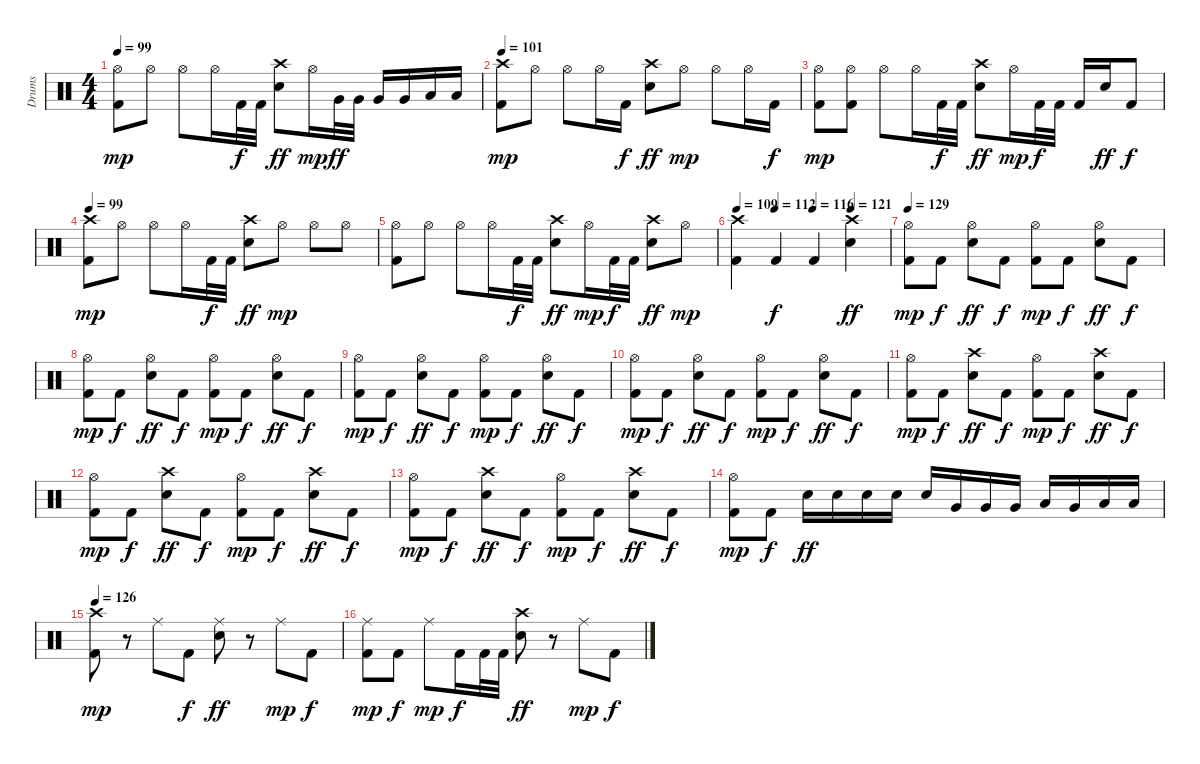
\track ("Drums" "Drums") {instrument percussion}
\staff {score}
\articulation defaults
\ts (4 4)
\tempo 99
\clef neutral
\ks c
("Hi-Hat (open)" "Kick (hit) 2").8{dy mp} "Hi-Hat (open)".8 "Hi-Hat (open)".8 "Hi-Hat (open)".16 "Kick (hit) 2".32{dy f} "Kick (hit) 2".32 ("Crash high (hit)" "Electric Snare (hit)").8{dy ff} "Hi-Hat (open)".16{dy mp} "Very Low Tom (hit)".32{dy ff} "Very Low Tom (hit)".32 "Very Low Tom (hit)".16 "Very Low Tom (hit)".16 "Low Floor Tom (hit)".16 "Low Floor Tom (hit)".16 |
\tempo 101
("Crash high (hit)" "Kick (hit) 2").8{dy mp} "Hi-Hat (open)".8 "Hi-Hat (open)".8 "Hi-Hat (open)".16 "Kick (hit) 2".16{dy f} ("Crash high (hit)" "Electric Snare (hit)").8{dy ff} "Hi-Hat (open)".8{dy mp} "Hi-Hat (open)".8 "Hi-Hat (open)".16 "Kick (hit) 2".16{dy f} |
("Hi-Hat (open)" "Kick (hit) 2").8{dy mp} ("Hi-Hat (open)" "Kick (hit) 2").8 "Hi-Hat (open)".8 "Hi-Hat (open)".16 "Kick (hit) 2".32{dy f} "Kick (hit) 2".32 ("Crash high (hit)" "Electric Snare (hit)").8{dy ff} "Hi-Hat (open)".16{dy mp} "Kick (hit) 2".32{dy f} "Kick (hit) 2".32 "Kick (hit) 2".16 "Electric Snare (hit)".16{dy ff} "Kick (hit) 2".8{dy f} |
\tempo 99
("Crash high (hit)" "Kick (hit) 2").8{dy mp} "Hi-Hat (open)".8 "Hi-Hat (open)".8 "Hi-Hat (open)".16 "Kick (hit) 2".32{dy f} "Kick (hit) 2".32 ("Crash high (hit)" "Electric Snare (hit)").8{dy ff} "Hi-Hat (open)".8{dy mp} "Hi-Hat (open)".8 "Hi-Hat (open)".8 |
("Hi-Hat (open)" "Kick (hit) 2").8 "Hi-Hat (open)".8 "Hi-Hat (open)".8 "Hi-Hat (open)".16 "Kick (hit) 2".32{dy f} "Kick (hit) 2".32 ("Crash high (hit)" "Electric Snare (hit)").8{dy ff} "Hi-Hat (open)".16{dy mp} "Kick (hit) 2".32{dy f} "Kick (hit) 2".32 ("Crash high (hit)" "Electric Snare (hit)").8{dy ff} "Hi-Hat (open)".8{dy mp} |
\tempo 109
\tempo (112 0.25)
\tempo (116 0.5)
\tempo (121 0.75)
("Crash high (hit)" "Kick (hit) 2").4 "Kick (hit) 2".4{dy f} "Kick (hit) 2".4 ("Crash high (hit)" "Electric Snare (hit)").4{dy ff} |
\tempo 129
("Hi-Hat (open)" "Kick (hit) 2").8{dy mp} "Kick (hit) 2".8{dy f} ("Hi-Hat (open)" "Electric Snare (hit)").8{dy ff} "Kick (hit) 2".8{dy f} ("Hi-Hat (open)" "Kick (hit) 2").8{dy mp} "Kick (hit) 2".8{dy f} ("Hi-Hat (open)" "Electric Snare (hit)").8{dy ff} "Kick (hit) 2".8{dy f} |
("Hi-Hat (open)" "Kick (hit) 2").8{dy mp} "Kick (hit) 2".8{dy f} ("Hi-Hat (open)" "Electric Snare (hit)").8{dy ff} "Kick (hit) 2".8{dy f} ("Hi-Hat (open)" "Kick (hit) 2").8{dy mp} "Kick (hit) 2".8{dy f} ("Hi-Hat (open)" "Electric Snare (hit)").8{dy ff} "Kick (hit) 2".8{dy f} |
("Hi-Hat (open)" "Kick (hit) 2").8{dy mp} "Kick (hit) 2".8{dy f} ("Hi-Hat (open)" "Electric Snare (hit)").8{dy ff} "Kick (hit) 2".8{dy f} ("Hi-Hat (open)" "Kick (hit) 2").8{dy mp} "Kick (hit) 2".8{dy f} ("Hi-Hat (open)" "Electric Snare (hit)").8{dy ff} "Kick (hit) 2".8{dy f} |
("Hi-Hat (open)" "Kick (hit) 2").8{dy mp} "Kick (hit) 2".8{dy f} ("Hi-Hat (open)" "Electric Snare (hit)").8{dy ff} "Kick (hit) 2".8{dy f} ("Hi-Hat (open)" "Kick (hit) 2").8{dy mp} "Kick (hit) 2".8{dy f} ("Hi-Hat (open)" "Electric Snare (hit)").8{dy ff} "Kick (hit) 2".8{dy f} |
("Hi-Hat (open)" "Kick (hit) 2").8{dy mp} "Kick (hit) 2".8{dy f} ("Crash high (hit)" "Electric Snare (hit)").8{dy ff} "Kick (hit) 2".8{dy f} ("Hi-Hat (open)" "Kick (hit) 2").8{dy mp} "Kick (hit) 2".8{dy f} ("Crash high (hit)" "Electric Snare (hit)").8{dy ff} "Kick (hit) 2".8{dy f} |
("Hi-Hat (open)" "Kick (hit) 2").8{dy mp} "Kick (hit) 2".8{dy f} ("Crash high (hit)" "Electric Snare (hit)").8{dy ff} "Kick (hit) 2".8{dy f} ("Hi-Hat (open)" "Kick (hit) 2").8{dy mp} "Kick (hit) 2".8{dy f} ("Crash high (hit)" "Electric Snare (hit)").8{dy ff} "Kick (hit) 2".8{dy f} |
("Hi-Hat (open)" "Kick (hit) 2").8{dy mp} "Kick (hit) 2".8{dy f} ("Crash high (hit)" "Electric Snare (hit)").8{dy ff} "Kick (hit) 2".8{dy f} ("Hi-Hat (open)" "Kick (hit) 2").8{dy mp} "Kick (hit) 2".8{dy f} ("Crash high (hit)" "Electric Snare (hit)").8{dy ff} "Kick (hit) 2".8{dy f} |
("Hi-Hat (open)" "Kick (hit) 2").8{dy mp} "Kick (hit) 2".8{dy f} "Electric Snare (hit)".16{dy ff} "Electric Snare (hit)".16 "Electric Snare (hit)".16 "Electric Snare (hit)".16 "Electric Snare (hit)".16 "Very Low Tom (hit)".16 "Very Low Tom (hit)".16 "Very Low Tom (hit)".16 "Low Floor Tom (hit)".16 "Very Low Tom (hit)".16 "Low Floor Tom (hit)".16 "Low Floor Tom (hit)".16 |
\tempo 126
("Crash high (hit)" "Kick (hit) 2").8{dy mp} r.8 "Ride (middle)".8 "Kick (hit) 2".8{dy f} ("Ride (middle)" "Electric Snare (hit)").8{dy ff} r.8 "Ride (middle)".8{dy mp} "Kick (hit) 2".8{dy f} |
("Ride (middle)" "Kick (hit) 2").8{dy mp} "Kick (hit) 2".8{dy f} "Ride (middle)".8{dy mp} "Kick (hit) 2".16{dy f} "Kick (hit) 2".32 "Kick (hit) 2".32 ("Crash high (hit)" "Electric Snare (hit)").8{dy ff} r.8 "Ride (middle)".8{dy mp} "Kick (hit) 2".8{dy f}
